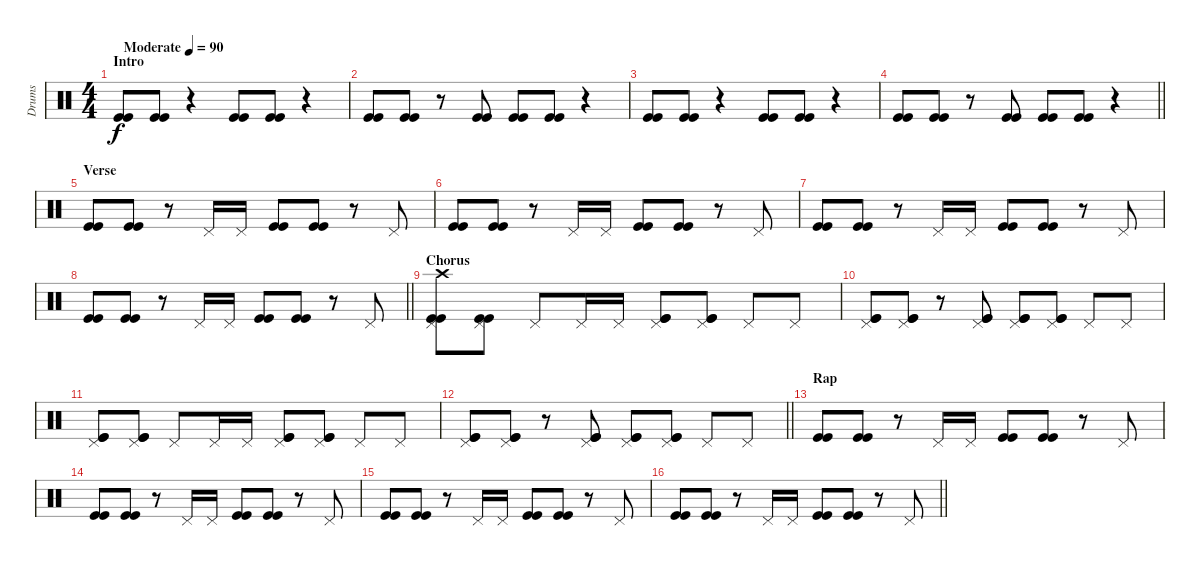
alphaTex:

\track ("Drums" "Drums") {instrument percussion}
\staff {score}
\articulation defaults
\ts (4 4)
\section ("" "Intro")
\tempo (90 "Moderate")
\clef neutral
\ks c
("Kick (hit)" "Kick (hit)").8{dy f} ("Kick (hit)" "Kick (hit)").8 r.4 ("Kick (hit)" "Kick (hit)").8 ("Kick (hit)" "Kick (hit)").8 r.4 |
("Kick (hit)" "Kick (hit)").8 ("Kick (hit)" "Kick (hit)").8 r.8 ("Kick (hit)" "Kick (hit)").8 ("Kick (hit)" "Kick (hit)").8 ("Kick (hit)" "Kick (hit)").8 r.4 |
("Kick (hit)" "Kick (hit)").8 ("Kick (hit)" "Kick (hit)").8 r.4 ("Kick (hit)" "Kick (hit)").8 ("Kick (hit)" "Kick (hit)").8 r.4 |
\barLineRight lightlight
("Kick (hit)" "Kick (hit)").8 ("Kick (hit)" "Kick (hit)").8 r.8 ("Kick (hit)" "Kick (hit)").8 ("Kick (hit)" "Kick (hit)").8 ("Kick (hit)" "Kick (hit)").8 r.4 |
\section ("" "Verse")
("Kick (hit)" "Kick (hit)").8 ("Kick (hit)" "Kick (hit)").8 r.8 "Pedal Hi-Hat (hit)".16 "Pedal Hi-Hat (hit)".16 ("Kick (hit)" "Kick (hit)").8 ("Kick (hit)" "Kick (hit)").8 r.8 "Pedal Hi-Hat (hit)".8 |
("Kick (hit)" "Kick (hit)").8 ("Kick (hit)" "Kick (hit)").8 r.8 "Pedal Hi-Hat (hit)".16 "Pedal Hi-Hat (hit)".16 ("Kick (hit)" "Kick (hit)").8 ("Kick (hit)" "Kick (hit)").8 r.8 "Pedal Hi-Hat (hit)".8 |
("Kick (hit)" "Kick (hit)").8 ("Kick (hit)" "Kick (hit)").8 r.8 "Pedal Hi-Hat (hit)".16 "Pedal Hi-Hat (hit)".16 ("Kick (hit)" "Kick (hit)").8 ("Kick (hit)" "Kick (hit)").8 r.8 "Pedal Hi-Hat (hit)".8 |
\barLineRight lightlight
("Kick (hit)" "Kick (hit)").8 ("Kick (hit)" "Kick (hit)").8 r.8 "Pedal Hi-Hat (hit)".16 "Pedal Hi-Hat (hit)".16 ("Kick (hit)" "Kick (hit)").8 ("Kick (hit)" "Kick (hit)").8 r.8 "Pedal Hi-Hat (hit)".8 |
\section ("" "Chorus")
("Kick (hit)" "Kick (hit)" "Pedal Hi-Hat (hit)" "Crash high (hit)").8 ("Kick (hit)" "Kick (hit)" "Pedal Hi-Hat (hit)").8 "Pedal Hi-Hat (hit)".8 "Pedal Hi-Hat (hit)".16 "Pedal Hi-Hat (hit)".16 ("Kick (hit)" "Kick (hit)" "Pedal Hi-Hat (hit)").8 ("Kick (hit)" "Kick (hit)" "Pedal Hi-Hat (hit)").8 "Pedal Hi-Hat (hit)".8 "Pedal Hi-Hat (hit)".8 |
("Kick (hit)" "Kick (hit)" "Pedal Hi-Hat (hit)").8 ("Kick (hit)" "Kick (hit)" "Pedal Hi-Hat (hit)").8 r.8 ("Kick (hit)" "Kick (hit)" "Pedal Hi-Hat (hit)").8 ("Kick (hit)" "Kick (hit)" "Pedal Hi-Hat (hit)").8 ("Kick (hit)" "Kick (hit)" "Pedal Hi-Hat (hit)").8 "Pedal Hi-Hat (hit)".8 "Pedal Hi-Hat (hit)".8 |
("Kick (hit)" "Kick (hit)" "Pedal Hi-Hat (hit)").8 ("Kick (hit)" "Kick (hit)" "Pedal Hi-Hat (hit)").8 "Pedal Hi-Hat (hit)".8 "Pedal Hi-Hat (hit)".16 "Pedal Hi-Hat (hit)".16 ("Kick (hit)" "Kick (hit)" "Pedal Hi-Hat (hit)").8 ("Kick (hit)" "Kick (hit)" "Pedal Hi-Hat (hit)").8 "Pedal Hi-Hat (hit)".8 "Pedal Hi-Hat (hit)".8 |
\barLineRight lightlight
("Kick (hit)" "Kick (hit)" "Pedal Hi-Hat (hit)").8 ("Kick (hit)" "Kick (hit)" "Pedal Hi-Hat (hit)").8 r.8 ("Kick (hit)" "Kick (hit)" "Pedal Hi-Hat (hit)").8 ("Kick (hit)" "Kick (hit)" "Pedal Hi-Hat (hit)").8 ("Kick (hit)" "Kick (hit)" "Pedal Hi-Hat (hit)").8 "Pedal Hi-Hat (hit)".8 "Pedal Hi-Hat (hit)".8 |
\section ("" "Rap")
("Kick (hit)" "Kick (hit)").8 ("Kick (hit)" "Kick (hit)").8 r.8 "Pedal Hi-Hat (hit)".16 "Pedal Hi-Hat (hit)".16 ("Kick (hit)" "Kick (hit)").8 ("Kick (hit)" "Kick (hit)").8 r.8 "Pedal Hi-Hat (hit)".8 |
("Kick (hit)" "Kick (hit)").8 ("Kick (hit)" "Kick (hit)").8 r.8 "Pedal Hi-Hat (hit)".16 "Pedal Hi-Hat (hit)".16 ("Kick (hit)" "Kick (hit)").8 ("Kick (hit)" "Kick (hit)").8 r.8 "Pedal Hi-Hat (hit)".8 |
("Kick (hit)" "Kick (hit)").8 ("Kick (hit)" "Kick (hit)").8 r.8 "Pedal Hi-Hat (hit)".16 "Pedal Hi-Hat (hit)".16 ("Kick (hit)" "Kick (hit)").8 ("Kick (hit)" "Kick (hit)").8 r.8 "Pedal Hi-Hat (hit)".8 |
\barLineRight lightlight
("Kick (hit)" "Kick (hit)").8 ("Kick (hit)" "Kick (hit)").8 r.8 "Pedal Hi-Hat (hit)".16 "Pedal Hi-Hat (hit)".16 ("Kick (hit)" "Kick (hit)").8 ("Kick (hit)" "Kick (hit)").8 r.8 "Pedal Hi-Hat (hit)".8
